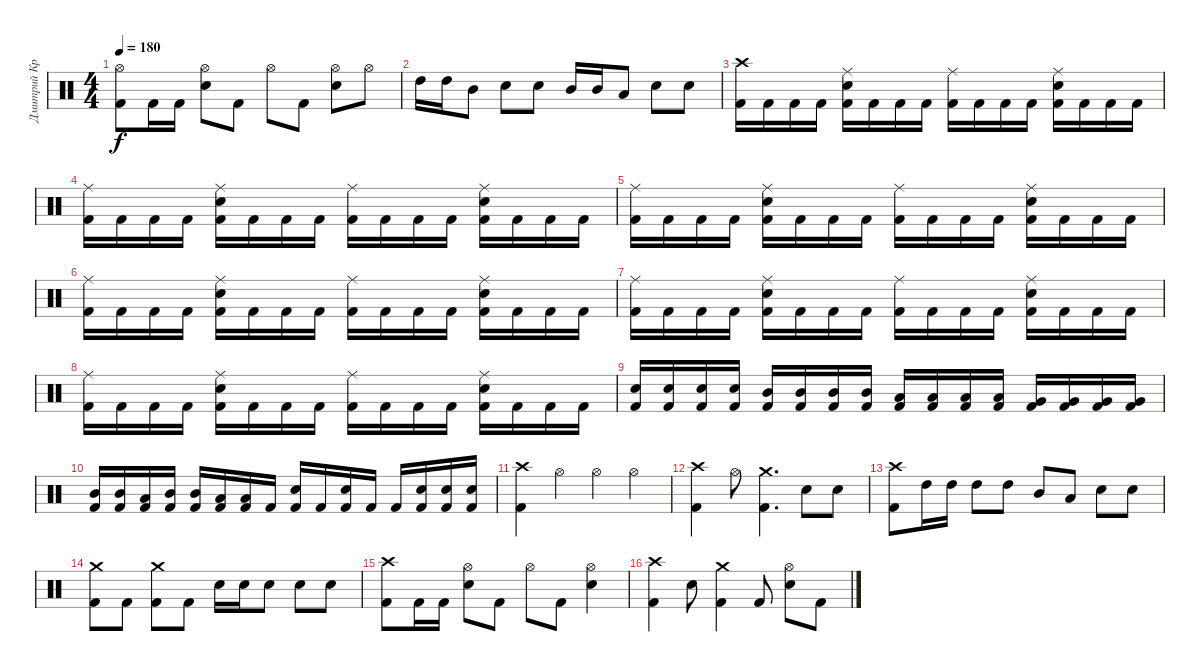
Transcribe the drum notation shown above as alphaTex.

\track ("Дмитрий Кривенков" "Дмитрий Кр") {instrument percussion}
\staff {score}
\articulation defaults
\ts (4 4)
\tempo 180
\clef neutral
\ks c
("Hi-Hat (open)" "Kick (hit) 2").8{dy f} "Kick (hit) 2".16 "Kick (hit) 2".16 ("Hi-Hat (open)" "Electric Snare (hit)").8 "Kick (hit) 2".8 "Hi-Hat (open)".8 "Kick (hit) 2".8 ("Hi-Hat (open)" "Electric Snare (hit)").8 "Hi-Hat (open)".8 |
"High Tom (hit)".16 "High Tom (hit)".16 "Mid Tom (hit)".8 "Electric Snare (hit)".8 "Electric Snare (hit)".8 "Mid Tom (hit)".16 "Mid Tom (hit)".16 "Low Tom (hit)".8 "Electric Snare (hit)".8 "Electric Snare (hit)".8 |
("Crash high (hit)" "Kick (hit) 2").16 "Kick (hit) 2".16 "Kick (hit) 2".16 "Kick (hit) 2".16 ("Ride (middle)" "Electric Snare (hit)" "Kick (hit) 2").16 "Kick (hit) 2".16 "Kick (hit) 2".16 "Kick (hit) 2".16 ("Ride (middle)" "Kick (hit) 2").16 "Kick (hit) 2".16 "Kick (hit) 2".16 "Kick (hit) 2".16 ("Ride (middle)" "Electric Snare (hit)" "Kick (hit) 2").16 "Kick (hit) 2".16 "Kick (hit) 2".16 "Kick (hit) 2".16 |
("Ride (middle)" "Kick (hit) 2").16 "Kick (hit) 2".16 "Kick (hit) 2".16 "Kick (hit) 2".16 ("Ride (middle)" "Electric Snare (hit)" "Kick (hit) 2").16 "Kick (hit) 2".16 "Kick (hit) 2".16 "Kick (hit) 2".16 ("Ride (middle)" "Kick (hit) 2").16 "Kick (hit) 2".16 "Kick (hit) 2".16 "Kick (hit) 2".16 ("Ride (middle)" "Electric Snare (hit)" "Kick (hit) 2").16 "Kick (hit) 2".16 "Kick (hit) 2".16 "Kick (hit) 2".16 |
("Ride (middle)" "Kick (hit) 2").16 "Kick (hit) 2".16 "Kick (hit) 2".16 "Kick (hit) 2".16 ("Ride (middle)" "Electric Snare (hit)" "Kick (hit) 2").16 "Kick (hit) 2".16 "Kick (hit) 2".16 "Kick (hit) 2".16 ("Ride (middle)" "Kick (hit) 2").16 "Kick (hit) 2".16 "Kick (hit) 2".16 "Kick (hit) 2".16 ("Ride (middle)" "Electric Snare (hit)" "Kick (hit) 2").16 "Kick (hit) 2".16 "Kick (hit) 2".16 "Kick (hit) 2".16 |
("Ride (middle)" "Kick (hit) 2").16 "Kick (hit) 2".16 "Kick (hit) 2".16 "Kick (hit) 2".16 ("Ride (middle)" "Electric Snare (hit)" "Kick (hit) 2").16 "Kick (hit) 2".16 "Kick (hit) 2".16 "Kick (hit) 2".16 ("Ride (middle)" "Kick (hit) 2").16 "Kick (hit) 2".16 "Kick (hit) 2".16 "Kick (hit) 2".16 ("Ride (middle)" "Electric Snare (hit)" "Kick (hit) 2").16 "Kick (hit) 2".16 "Kick (hit) 2".16 "Kick (hit) 2".16 |
("Ride (middle)" "Kick (hit) 2").16 "Kick (hit) 2".16 "Kick (hit) 2".16 "Kick (hit) 2".16 ("Ride (middle)" "Electric Snare (hit)" "Kick (hit) 2").16 "Kick (hit) 2".16 "Kick (hit) 2".16 "Kick (hit) 2".16 ("Ride (middle)" "Kick (hit) 2").16 "Kick (hit) 2".16 "Kick (hit) 2".16 "Kick (hit) 2".16 ("Ride (middle)" "Electric Snare (hit)" "Kick (hit) 2").16 "Kick (hit) 2".16 "Kick (hit) 2".16 "Kick (hit) 2".16 |
("Ride (middle)" "Kick (hit) 2").16 "Kick (hit) 2".16 "Kick (hit) 2".16 "Kick (hit) 2".16 ("Ride (middle)" "Electric Snare (hit)" "Kick (hit) 2").16 "Kick (hit) 2".16 "Kick (hit) 2".16 "Kick (hit) 2".16 ("Ride (middle)" "Kick (hit) 2").16 "Kick (hit) 2".16 "Kick (hit) 2".16 "Kick (hit) 2".16 ("Ride (middle)" "Electric Snare (hit)" "Kick (hit) 2").16 "Kick (hit) 2".16 "Kick (hit) 2".16 "Kick (hit) 2".16 |
("Electric Snare (hit)" "Kick (hit) 2").16 ("Electric Snare (hit)" "Kick (hit) 2").16 ("Electric Snare (hit)" "Kick (hit) 2").16 ("Electric Snare (hit)" "Kick (hit) 2").16 ("Mid Tom (hit)" "Kick (hit) 2").16 ("Mid Tom (hit)" "Kick (hit) 2").16 ("Mid Tom (hit)" "Kick (hit) 2").16 ("Mid Tom (hit)" "Kick (hit) 2").16 ("Low Tom (hit)" "Kick (hit) 2").16 ("Low Tom (hit)" "Kick (hit) 2").16 ("Low Tom (hit)" "Kick (hit) 2").16 ("Low Tom (hit)" "Kick (hit) 2").16 ("Very Low Tom (hit)" "Kick (hit) 2").16 ("Very Low Tom (hit)" "Kick (hit) 2").16 ("Very Low Tom (hit)" "Kick (hit) 2").16 ("Very Low Tom (hit)" "Kick (hit) 2").16 |
("Mid Tom (hit)" "Kick (hit) 2").16 ("Mid Tom (hit)" "Kick (hit) 2").16 ("Low Tom (hit)" "Kick (hit) 2").16 ("Mid Tom (hit)" "Kick (hit) 2").16 ("Mid Tom (hit)" "Kick (hit) 2").16 ("Low Tom (hit)" "Kick (hit) 2").16 ("Low Tom (hit)" "Kick (hit) 2").16 "Kick (hit) 2".16 ("Electric Snare (hit)" "Kick (hit) 2").16 "Kick (hit) 2".16 ("Electric Snare (hit)" "Kick (hit) 2").16 "Kick (hit) 2".16 "Kick (hit) 2".16 ("Electric Snare (hit)" "Kick (hit) 2").16 ("Electric Snare (hit)" "Kick (hit) 2").16 ("Electric Snare (hit)" "Kick (hit) 2").16 |
("Crash high (hit)" "Kick (hit) 2").4 "Hi-Hat (open)".4 "Hi-Hat (open)".4 "Hi-Hat (open)".4 |
("Crash high (hit)" "Kick (hit) 2").4 "Hi-Hat (open)".8 ("Crash medium (hit)" "Kick (hit) 2").4{d} "Electric Snare (hit)".8 "Electric Snare (hit)".8 |
("Crash high (hit)" "Kick (hit) 2").8 "High Tom (hit)".16 "High Tom (hit)".16 "High Tom (hit)".8 "High Tom (hit)".8 "Mid Tom (hit)".8 "Low Tom (hit)".8 "Electric Snare (hit)".8 "Electric Snare (hit)".8 |
("Crash medium (hit)" "Kick (hit) 2").8 "Kick (hit) 2".8 ("Crash medium (hit)" "Kick (hit) 2").8 "Kick (hit) 2".8 "Electric Snare (hit)".16 "Electric Snare (hit)".16 "Electric Snare (hit)".8 "Electric Snare (hit)".8 "Electric Snare (hit)".8 |
("Crash high (hit)" "Kick (hit) 2").8 "Kick (hit) 2".16 "Kick (hit) 2".16 ("Hi-Hat (open)" "Electric Snare (hit)").8 "Kick (hit) 2".8 "Hi-Hat (open)".8 "Kick (hit) 2".8 ("Hi-Hat (open)" "Electric Snare (hit)").4 |
("Crash high (hit)" "Kick (hit) 2").4 "Electric Snare (hit)".8 ("Crash medium (hit)" "Kick (hit) 2").4 "Kick (hit) 2".8 ("Hi-Hat (open)" "Electric Snare (hit)").8 "Kick (hit) 2".8
